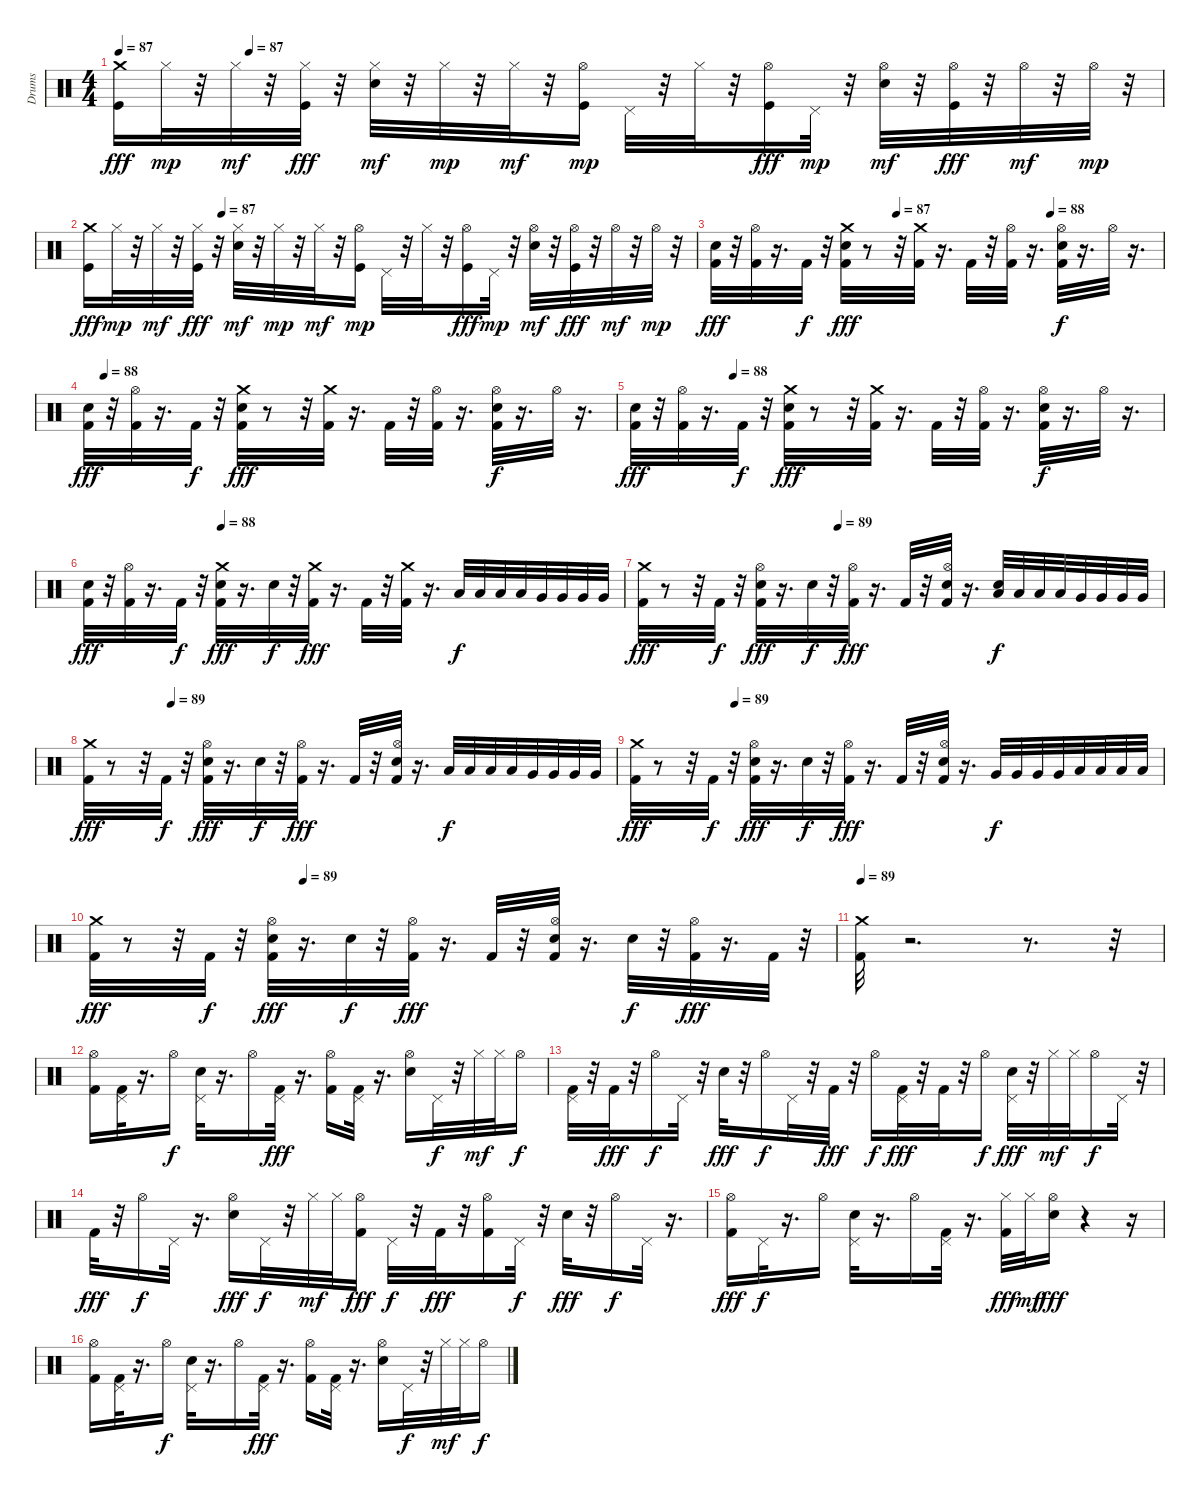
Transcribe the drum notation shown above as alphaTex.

\track ("Drums" "Drums") {instrument percussion}
\staff {score}
\articulation defaults
\ts (4 4)
\tempo 87
\tempo (87 0.125)
\clef neutral
\ks c
("Crash medium (hit)" "Kick (hit)").16{dy fff} "Hi-Hat (closed)".32{dy mp} r.32 "Hi-Hat (closed)".32{dy mf} r.32 ("Hi-Hat (closed)" "Kick (hit)").32{dy fff} r.32 ("Hi-Hat (closed)" "Electric Snare (hit)").32{dy mf} r.32 "Hi-Hat (closed)".32{dy mp} r.32 "Hi-Hat (closed)".32{dy mf} r.32 ("Kick (hit)" "Hi-Hat (open)").16{dy mp} "Pedal Hi-Hat (hit)".32 r.32 "Hi-Hat (closed)".32 r.32 ("Hi-Hat (open)" "Kick (hit)").16{dy fff} "Pedal Hi-Hat (hit)".32{dy mp} r.32 ("Hi-Hat (open)" "Electric Snare (hit)").32{dy mf} r.32 ("Hi-Hat (open)" "Kick (hit)").32{dy fff} r.32 "Hi-Hat (open)".32{dy mf} r.32 "Hi-Hat (open)".32{dy mp} r.32 |
\tempo (87 0.21875)
("Crash medium (hit)" "Kick (hit)").16{dy fff} "Hi-Hat (closed)".32{dy mp} r.32 "Hi-Hat (closed)".32{dy mf} r.32 ("Hi-Hat (closed)" "Kick (hit)").32{dy fff} r.32 ("Hi-Hat (closed)" "Electric Snare (hit)").32{dy mf} r.32 "Hi-Hat (closed)".32{dy mp} r.32 "Hi-Hat (closed)".32{dy mf} r.32 ("Kick (hit)" "Hi-Hat (open)").16{dy mp} "Pedal Hi-Hat (hit)".32 r.32 "Hi-Hat (closed)".32 r.32 ("Hi-Hat (open)" "Kick (hit)").16{dy fff} "Pedal Hi-Hat (hit)".32{dy mp} r.32 ("Hi-Hat (open)" "Electric Snare (hit)").32{dy mf} r.32 ("Hi-Hat (open)" "Kick (hit)").32{dy fff} r.32 "Hi-Hat (open)".32{dy mf} r.32 "Hi-Hat (open)".32{dy mp} r.32 |
\tempo (87 0.40625)
\tempo (88 0.75)
("Electric Snare (hit)" "Kick (hit) 2").32{dy fff} r.32 ("Hi-Hat (open)" "Kick (hit) 2").32 r.16{d} "Kick (hit) 2".32{dy f} r.32 ("Crash medium (hit)" "Electric Snare (hit)" "Kick (hit) 2").32{dy fff} r.8 r.32 ("Crash medium (hit)" "Kick (hit) 2").32 r.16{d} "Kick (hit) 2".32 r.32 ("Hi-Hat (open)" "Kick (hit) 2").32 r.16{d} ("Hi-Hat (open)" "Kick (hit) 2" "Electric Snare (hit)").32{dy f} r.16{d} "Hi-Hat (open)".32 r.16{d} |
\tempo (88 0.03125)
("Electric Snare (hit)" "Kick (hit) 2").32{dy fff} r.32 ("Hi-Hat (open)" "Kick (hit) 2").32 r.16{d} "Kick (hit) 2".32{dy f} r.32 ("Crash medium (hit)" "Electric Snare (hit)" "Kick (hit) 2").32{dy fff} r.8 r.32 ("Crash medium (hit)" "Kick (hit) 2").32 r.16{d} "Kick (hit) 2".32 r.32 ("Hi-Hat (open)" "Kick (hit) 2").32 r.16{d} ("Hi-Hat (open)" "Kick (hit) 2" "Electric Snare (hit)").32{dy f} r.16{d} "Hi-Hat (open)".32 r.16{d} |
\tempo (88 0.1875)
("Electric Snare (hit)" "Kick (hit) 2").32{dy fff} r.32 ("Hi-Hat (open)" "Kick (hit) 2").32 r.16{d} "Kick (hit) 2".32{dy f} r.32 ("Crash medium (hit)" "Electric Snare (hit)" "Kick (hit) 2").32{dy fff} r.8 r.32 ("Crash medium (hit)" "Kick (hit) 2").32 r.16{d} "Kick (hit) 2".32 r.32 ("Hi-Hat (open)" "Kick (hit) 2").32 r.16{d} ("Hi-Hat (open)" "Kick (hit) 2" "Electric Snare (hit)").32{dy f} r.16{d} "Hi-Hat (open)".32 r.16{d} |
\tempo (88 0.25)
("Electric Snare (hit)" "Kick (hit) 2").32{dy fff} r.32 ("Hi-Hat (open)" "Kick (hit) 2").32 r.16{d} "Kick (hit) 2".32{dy f} r.32 ("Crash medium (hit)" "Electric Snare (hit)" "Kick (hit) 2").32{dy fff} r.16{d} "Electric Snare (hit)".32{dy f} r.32 ("Crash medium (hit)" "Kick (hit) 2").32{dy fff} r.16{d} "Kick (hit) 2".32 r.32 ("Crash medium (hit)" "Kick (hit) 2").32 r.16{d} "Low Tom (hit)".32{dy f} "Low Tom (hit)".32 "Low Tom (hit)".32 "Low Tom (hit)".32 "Very Low Tom (hit)".32 "Very Low Tom (hit)".32 "Very Low Tom (hit)".32 "Very Low Tom (hit)".32 |
\tempo (89 0.375)
("Crash medium (hit)" "Kick (hit) 2").32{dy fff} r.8 r.32 "Kick (hit) 2".32{dy f} r.32 ("Hi-Hat (open)" "Electric Snare (hit)" "Kick (hit) 2").32{dy fff} r.16{d} "Electric Snare (hit)".32{dy f} r.32 ("Hi-Hat (open)" "Kick (hit) 2").32{dy fff} r.16{d} "Kick (hit) 2".32 r.32 ("Electric Snare (hit)" "Hi-Hat (open)" "Kick (hit) 2").32 r.16{d} ("Electric Snare (hit)" "Low Tom (hit)").32{dy f} "Low Tom (hit)".32 "Low Tom (hit)".32 "Low Tom (hit)".32 "Very Low Tom (hit)".32 "Very Low Tom (hit)".32 "Very Low Tom (hit)".32 "Very Low Tom (hit)".32 |
\tempo (89 0.15625)
("Crash medium (hit)" "Kick (hit) 2").32{dy fff} r.8 r.32 "Kick (hit) 2".32{dy f} r.32 ("Electric Snare (hit)" "Hi-Hat (open)" "Kick (hit) 2").32{dy fff} r.16{d} "Electric Snare (hit)".32{dy f} r.32 ("Hi-Hat (open)" "Kick (hit) 2").32{dy fff} r.16{d} "Kick (hit) 2".32 r.32 ("Electric Snare (hit)" "Hi-Hat (open)" "Kick (hit) 2").32 r.16{d} "Low Tom (hit)".32{dy f} "Low Tom (hit)".32 "Low Tom (hit)".32 "Low Tom (hit)".32 "Very Low Tom (hit)".32 "Very Low Tom (hit)".32 "Very Low Tom (hit)".32 "Very Low Tom (hit)".32 |
\tempo (89 0.1875)
("Crash medium (hit)" "Kick (hit) 2").32{dy fff} r.8 r.32 "Kick (hit) 2".32{dy f} r.32 ("Hi-Hat (open)" "Electric Snare (hit)" "Kick (hit) 2").32{dy fff} r.16{d} "Electric Snare (hit)".32{dy f} r.32 ("Hi-Hat (open)" "Kick (hit) 2").32{dy fff} r.16{d} "Kick (hit) 2".32 r.32 ("Hi-Hat (open)" "Electric Snare (hit)" "Kick (hit) 2").32 r.16{d} "Very Low Tom (hit)".32{dy f} "Very Low Tom (hit)".32 "Very Low Tom (hit)".32 "Very Low Tom (hit)".32 "Low Floor Tom (hit)".32 "Low Floor Tom (hit)".32 "Low Floor Tom (hit)".32 "Low Floor Tom (hit)".32 |
\tempo (89 0.28125)
("Crash medium (hit)" "Kick (hit) 2").32{dy fff} r.8 r.32 "Kick (hit) 2".32{dy f} r.32 ("Hi-Hat (open)" "Electric Snare (hit)" "Kick (hit) 2").32{dy fff} r.16{d} "Electric Snare (hit)".32{dy f} r.32 ("Hi-Hat (open)" "Kick (hit) 2").32{dy fff} r.16{d} "Kick (hit) 2".32 r.32 ("Hi-Hat (open)" "Electric Snare (hit)" "Kick (hit) 2").32 r.16{d} "Electric Snare (hit)".32{dy f} r.32 ("Kick (hit) 2" "Hi-Hat (open)").32{dy fff} r.16{d} "Kick (hit) 2".32 r.32 |
\tempo 89
("Crash medium (hit)" "Kick (hit) 2").32 r.2{d} r.8{d} r.32 |
("Kick (hit) 2" "Hi-Hat (open)").16 ("Pedal Hi-Hat (hit)" "Kick (hit) 2").32 r.16{d} "Hi-Hat (open)".16{dy f} ("Electric Snare (hit)" "Pedal Hi-Hat (hit)").32 r.16{d} "Hi-Hat (open)".16 ("Pedal Hi-Hat (hit)" "Kick (hit) 2").32{dy fff} r.16{d} ("Hi-Hat (open)" "Kick (hit) 2").16 ("Pedal Hi-Hat (hit)" "Kick (hit) 2").32 r.16{d} ("Electric Snare (hit)" "Hi-Hat (open)").16 "Pedal Hi-Hat (hit)".32{dy f} r.32 "Hi-Hat (closed)".32{dy mf} "Hi-Hat (closed)".32 "Hi-Hat (open)".16{dy f} |
("Kick (hit) 2" "Pedal Hi-Hat (hit)").32 r.32 "Kick (hit) 2".32{dy fff} r.32 "Hi-Hat (open)".16{dy f} "Pedal Hi-Hat (hit)".32 r.32 "Electric Snare (hit)".32{dy fff} r.32 "Hi-Hat (open)".16{dy f} "Pedal Hi-Hat (hit)".32 r.32 "Kick (hit) 2".32{dy fff} r.32 "Hi-Hat (open)".16{dy f} ("Pedal Hi-Hat (hit)" "Kick (hit) 2").32{dy fff} r.32 "Kick (hit) 2".32 r.32 "Hi-Hat (open)".16{dy f} ("Pedal Hi-Hat (hit)" "Electric Snare (hit)").32{dy fff} r.32 "Hi-Hat (closed)".32{dy mf} "Hi-Hat (closed)".32 "Hi-Hat (open)".16{dy f} "Pedal Hi-Hat (hit)".32 r.32 |
"Kick (hit) 2".32{dy fff} r.32 "Hi-Hat (open)".16{dy f} "Pedal Hi-Hat (hit)".32 r.16{d} ("Electric Snare (hit)" "Hi-Hat (open)").16{dy fff} "Pedal Hi-Hat (hit)".32{dy f} r.32 "Hi-Hat (closed)".32{dy mf} "Hi-Hat (closed)".32 ("Kick (hit) 2" "Hi-Hat (open)").16{dy fff} "Pedal Hi-Hat (hit)".32{dy f} r.32 "Kick (hit) 2".32{dy fff} r.32 ("Kick (hit) 2" "Hi-Hat (open)").16 "Pedal Hi-Hat (hit)".32{dy f} r.32 "Electric Snare (hit)".32{dy fff} r.32 "Hi-Hat (open)".16{dy f} "Pedal Hi-Hat (hit)".32 r.16{d} |
("Kick (hit) 2" "Hi-Hat (open)").16{dy fff} "Pedal Hi-Hat (hit)".32{dy f} r.16{d} "Hi-Hat (open)".16 ("Electric Snare (hit)" "Pedal Hi-Hat (hit)").32 r.16{d} "Hi-Hat (open)".16 ("Kick (hit) 2" "Pedal Hi-Hat (hit)").32 r.16{d} ("Hi-Hat (closed)" "Kick (hit) 2").32{dy fff} "Hi-Hat (closed)".32{dy mf} ("Electric Snare (hit)" "Hi-Hat (open)").16{dy fff} r.4 r.16 |
("Kick (hit) 2" "Hi-Hat (open)").16 ("Pedal Hi-Hat (hit)" "Kick (hit) 2").32 r.16{d} "Hi-Hat (open)".16{dy f} ("Electric Snare (hit)" "Pedal Hi-Hat (hit)").32 r.16{d} "Hi-Hat (open)".16 ("Pedal Hi-Hat (hit)" "Kick (hit) 2").32{dy fff} r.16{d} ("Hi-Hat (open)" "Kick (hit) 2").16 ("Pedal Hi-Hat (hit)" "Kick (hit) 2").32 r.16{d} ("Electric Snare (hit)" "Hi-Hat (open)").16 "Pedal Hi-Hat (hit)".32{dy f} r.32 "Hi-Hat (closed)".32{dy mf} "Hi-Hat (closed)".32 "Hi-Hat (open)".16{dy f}
